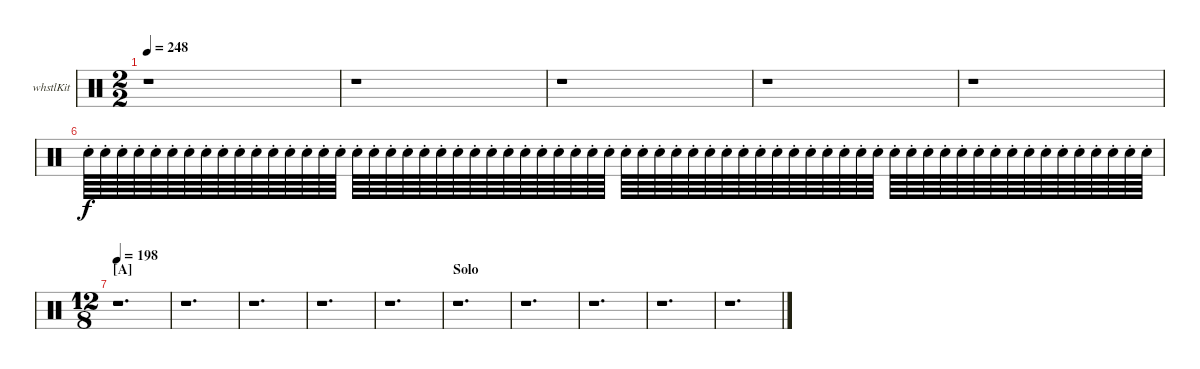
\bracketExtendMode nobrackets
\firstSystemTrackNameOrientation horizontal
\otherSystemsTrackNameOrientation horizontal
\defaultBarNumberDisplay FirstOfSystem
\track ("Whistle" "whstlKit") {instrument percussion}
\staff {score}
\articulation defaults
\ts (2 2)
\tempo 248
\clef neutral
\ks c
r.1{dy f} |
r.1 |
r.1 |
r.1 |
r.1 |
"Snare (hit) 2"{st}.64 "Snare (hit) 2"{st}.64 "Snare (hit) 2"{st}.64 "Snare (hit) 2"{st}.64 "Snare (hit) 2"{st}.64 "Snare (hit) 2"{st}.64 "Snare (hit) 2"{st}.64 "Snare (hit) 2"{st}.64 "Snare (hit) 2"{st}.64 "Snare (hit) 2"{st}.64 "Snare (hit) 2"{st}.64 "Snare (hit) 2"{st}.64 "Snare (hit) 2"{st}.64 "Snare (hit) 2"{st}.64 "Snare (hit) 2"{st}.64 "Snare (hit) 2"{st}.64 "Snare (hit) 2"{st}.64 "Snare (hit) 2"{st}.64 "Snare (hit) 2"{st}.64 "Snare (hit) 2"{st}.64 "Snare (hit) 2"{st}.64 "Snare (hit) 2"{st}.64 "Snare (hit) 2"{st}.64 "Snare (hit) 2"{st}.64 "Snare (hit) 2"{st}.64 "Snare (hit) 2"{st}.64 "Snare (hit) 2"{st}.64 "Snare (hit) 2"{st}.64 "Snare (hit) 2"{st}.64 "Snare (hit) 2"{st}.64 "Snare (hit) 2"{st}.64 "Snare (hit) 2"{st}.64 "Snare (hit) 2"{st}.64 "Snare (hit) 2"{st}.64 "Snare (hit) 2"{st}.64 "Snare (hit) 2"{st}.64 "Snare (hit) 2"{st}.64 "Snare (hit) 2"{st}.64 "Snare (hit) 2"{st}.64 "Snare (hit) 2"{st}.64 "Snare (hit) 2"{st}.64 "Snare (hit) 2"{st}.64 "Snare (hit) 2"{st}.64 "Snare (hit) 2"{st}.64 "Snare (hit) 2"{st}.64 "Snare (hit) 2"{st}.64 "Snare (hit) 2"{st}.64 "Snare (hit) 2"{st}.64 "Snare (hit) 2"{st}.64 "Snare (hit) 2"{st}.64 "Snare (hit) 2"{st}.64 "Snare (hit) 2"{st}.64 "Snare (hit) 2"{st}.64 "Snare (hit) 2"{st}.64 "Snare (hit) 2"{st}.64 "Snare (hit) 2"{st}.64 "Snare (hit) 2"{st}.64 "Snare (hit) 2"{st}.64 "Snare (hit) 2"{st}.64 "Snare (hit) 2"{st}.64 "Snare (hit) 2"{st}.64 "Snare (hit) 2"{st}.64 "Snare (hit) 2"{st}.64 "Snare (hit) 2"{st}.64 |
\ts (12 8)
\beaming (8 2 2 2 6)
\section ("A" "")
\tempo 198
r.1{d} |
r.1{d} |
r.1{d} |
r.1{d} |
r.1{d} |
\section ("" "Solo")
r.1{d} |
r.1{d} |
r.1{d} |
r.1{d} |
r.1{d}
